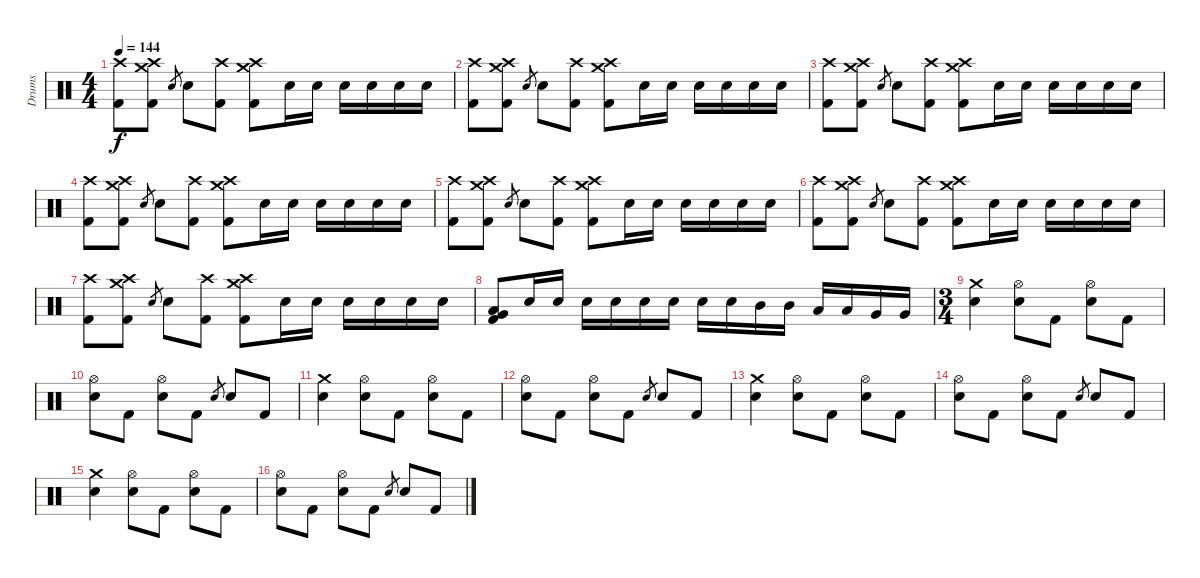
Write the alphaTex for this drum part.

\track ("Drums" "Drums") {instrument percussion}
\staff {score}
\articulation defaults
\ts (4 4)
\tempo 144
\clef neutral
\ks c
("Crash high (hit)" "Kick (hit) 2").8{dy f} ("Crash medium (hit)" "Crash high (hit)" "Kick (hit) 2").8 "Snare (hit) 2".8{gr} "Snare (hit) 2".8 ("Crash high (hit)" "Kick (hit) 2").8 ("Crash medium (hit)" "Crash high (hit)" "Kick (hit) 2").8 "Snare (hit) 2".16 "Snare (hit) 2".16 "Snare (hit) 2".16 "Snare (hit) 2".16 "Snare (hit) 2".16 "Snare (hit) 2".16 |
("Crash high (hit)" "Kick (hit) 2").8 ("Crash medium (hit)" "Crash high (hit)" "Kick (hit) 2").8 "Snare (hit) 2".8{gr} "Snare (hit) 2".8 ("Crash high (hit)" "Kick (hit) 2").8 ("Crash medium (hit)" "Crash high (hit)" "Kick (hit) 2").8 "Snare (hit) 2".16 "Snare (hit) 2".16 "Snare (hit) 2".16 "Snare (hit) 2".16 "Snare (hit) 2".16 "Snare (hit) 2".16 |
("Crash high (hit)" "Kick (hit) 2").8 ("Crash medium (hit)" "Crash high (hit)" "Kick (hit) 2").8 "Snare (hit) 2".8{gr} "Snare (hit) 2".8 ("Crash high (hit)" "Kick (hit) 2").8 ("Crash medium (hit)" "Crash high (hit)" "Kick (hit) 2").8 "Snare (hit) 2".16 "Snare (hit) 2".16 "Snare (hit) 2".16 "Snare (hit) 2".16 "Snare (hit) 2".16 "Snare (hit) 2".16 |
("Crash high (hit)" "Kick (hit) 2").8 ("Crash medium (hit)" "Crash high (hit)" "Kick (hit) 2").8 "Snare (hit) 2".8{gr} "Snare (hit) 2".8 ("Crash high (hit)" "Kick (hit) 2").8 ("Crash medium (hit)" "Crash high (hit)" "Kick (hit) 2").8 "Snare (hit) 2".16 "Snare (hit) 2".16 "Snare (hit) 2".16 "Snare (hit) 2".16 "Snare (hit) 2".16 "Snare (hit) 2".16 |
("Crash high (hit)" "Kick (hit) 2").8 ("Crash medium (hit)" "Crash high (hit)" "Kick (hit) 2").8 "Snare (hit) 2".8{gr} "Snare (hit) 2".8 ("Crash high (hit)" "Kick (hit) 2").8 ("Crash medium (hit)" "Crash high (hit)" "Kick (hit) 2").8 "Snare (hit) 2".16 "Snare (hit) 2".16 "Snare (hit) 2".16 "Snare (hit) 2".16 "Snare (hit) 2".16 "Snare (hit) 2".16 |
("Crash high (hit)" "Kick (hit) 2").8 ("Crash medium (hit)" "Crash high (hit)" "Kick (hit) 2").8 "Snare (hit) 2".8{gr} "Snare (hit) 2".8 ("Crash high (hit)" "Kick (hit) 2").8 ("Crash medium (hit)" "Crash high (hit)" "Kick (hit) 2").8 "Snare (hit) 2".16 "Snare (hit) 2".16 "Snare (hit) 2".16 "Snare (hit) 2".16 "Snare (hit) 2".16 "Snare (hit) 2".16 |
("Crash high (hit)" "Kick (hit) 2").8 ("Crash medium (hit)" "Crash high (hit)" "Kick (hit) 2").8 "Snare (hit) 2".8{gr} "Snare (hit) 2".8 ("Crash high (hit)" "Kick (hit) 2").8 ("Crash medium (hit)" "Crash high (hit)" "Kick (hit) 2").8 "Snare (hit) 2".16 "Snare (hit) 2".16 "Snare (hit) 2".16 "Snare (hit) 2".16 "Snare (hit) 2".16 "Snare (hit) 2".16 |
("Low Tom (hit)" "Very Low Tom (hit)" "Kick (hit) 2").8 "Snare (hit) 2".16 "Snare (hit) 2".16 "Snare (hit) 2".16 "Snare (hit) 2".16 "Snare (hit) 2".16 "Snare (hit) 2".16 "Snare (hit) 2".16 "Snare (hit) 2".16 "Mid Tom (hit)".16 "Mid Tom (hit)".16 "Low Tom (hit)".16 "Low Tom (hit)".16 "Very Low Tom (hit)".16 "Very Low Tom (hit)".16 |
\ts (3 4)
("Crash medium (hit)" "Snare (hit) 2").4 ("Hi-Hat (open)" "Snare (hit) 2").8 "Kick (hit) 2".8 ("Hi-Hat (open)" "Snare (hit) 2").8 "Kick (hit) 2".8 |
("Hi-Hat (open)" "Snare (hit) 2").8 "Kick (hit) 2".8 ("Hi-Hat (open)" "Snare (hit) 2").8 "Kick (hit) 2".8 "Snare (hit) 2".8{gr} "Snare (hit) 2".8 "Kick (hit) 2".8 |
("Crash medium (hit)" "Snare (hit) 2").4 ("Hi-Hat (open)" "Snare (hit) 2").8 "Kick (hit) 2".8 ("Hi-Hat (open)" "Snare (hit) 2").8 "Kick (hit) 2".8 |
("Hi-Hat (open)" "Snare (hit) 2").8 "Kick (hit) 2".8 ("Hi-Hat (open)" "Snare (hit) 2").8 "Kick (hit) 2".8 "Snare (hit) 2".8{gr} "Snare (hit) 2".8 "Kick (hit) 2".8 |
("Crash medium (hit)" "Snare (hit) 2").4 ("Hi-Hat (open)" "Snare (hit) 2").8 "Kick (hit) 2".8 ("Hi-Hat (open)" "Snare (hit) 2").8 "Kick (hit) 2".8 |
("Hi-Hat (open)" "Snare (hit) 2").8 "Kick (hit) 2".8 ("Hi-Hat (open)" "Snare (hit) 2").8 "Kick (hit) 2".8 "Snare (hit) 2".8{gr} "Snare (hit) 2".8 "Kick (hit) 2".8 |
("Crash medium (hit)" "Snare (hit) 2").4 ("Hi-Hat (open)" "Snare (hit) 2").8 "Kick (hit) 2".8 ("Hi-Hat (open)" "Snare (hit) 2").8 "Kick (hit) 2".8 |
("Hi-Hat (open)" "Snare (hit) 2").8 "Kick (hit) 2".8 ("Hi-Hat (open)" "Snare (hit) 2").8 "Kick (hit) 2".8 "Snare (hit) 2".8{gr} "Snare (hit) 2".8 "Kick (hit) 2".8
